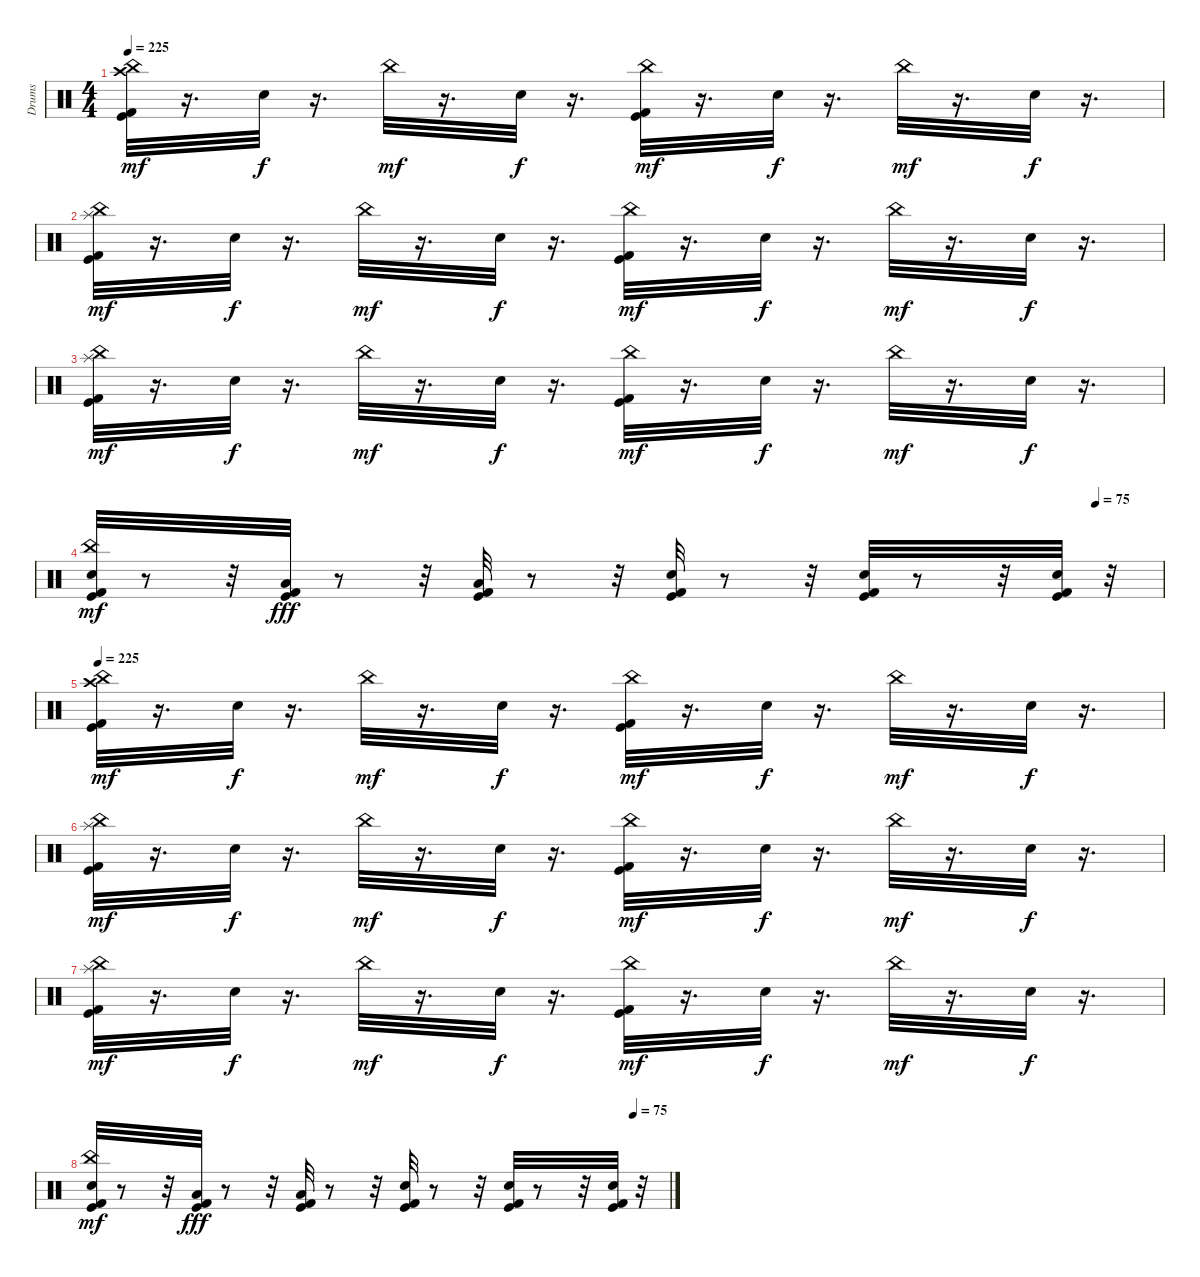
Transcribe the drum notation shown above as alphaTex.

\track ("Drums" "Drums") {instrument percussion}
\staff {score}
\articulation defaults
\ts (4 4)
\tempo 225
\clef neutral
\ks c
("Kick (hit) 2" "Kick (hit)" "China (hit)" "Crash high (hit)").32{dy mf} r.16{d} "Snare (hit) 2".32{dy f} r.16{d} "China (hit)".32{dy mf} r.16{d} "Snare (hit) 2".32{dy f} r.16{d} ("Kick (hit) 2" "Kick (hit)" "China (hit)").32{dy mf} r.16{d} "Snare (hit) 2".32{dy f} r.16{d} "China (hit)".32{dy mf} r.16{d} "Snare (hit) 2".32{dy f} r.16{d} |
("Kick (hit) 2" "Kick (hit)" "China (hit)" "Splash (hit)").32{dy mf} r.16{d} "Snare (hit) 2".32{dy f} r.16{d} "China (hit)".32{dy mf} r.16{d} "Snare (hit) 2".32{dy f} r.16{d} ("Kick (hit) 2" "Kick (hit)" "China (hit)").32{dy mf} r.16{d} "Snare (hit) 2".32{dy f} r.16{d} "China (hit)".32{dy mf} r.16{d} "Snare (hit) 2".32{dy f} r.16{d} |
("Kick (hit) 2" "Kick (hit)" "China (hit)" "Splash (hit)").32{dy mf} r.16{d} "Snare (hit) 2".32{dy f} r.16{d} "China (hit)".32{dy mf} r.16{d} "Snare (hit) 2".32{dy f} r.16{d} ("Kick (hit) 2" "Kick (hit)" "China (hit)").32{dy mf} r.16{d} "Snare (hit) 2".32{dy f} r.16{d} "China (hit)".32{dy mf} r.16{d} "Snare (hit) 2".32{dy f} r.16{d} |
\tempo (75 0.9375)
("Snare (hit) 2" "Kick (hit) 2" "Kick (hit)" "China (hit)").32{dy mf} r.8 r.32 ("Low Tom (hit)" "Kick (hit) 2" "Kick (hit)").32{dy fff} r.8 r.32 ("Low Floor Tom (hit)" "Kick (hit) 2" "Kick (hit)").32 r.8 r.32 ("Snare (hit) 2" "Kick (hit) 2" "Kick (hit)").32 r.8 r.32 ("Snare (hit) 2" "Kick (hit) 2" "Kick (hit)").32 r.8 r.32 ("Snare (hit) 2" "Kick (hit) 2" "Kick (hit)").32 r.32 |
\tempo 225
("Kick (hit) 2" "Kick (hit)" "China (hit)" "Crash high (hit)").32{dy mf} r.16{d} "Snare (hit) 2".32{dy f} r.16{d} "China (hit)".32{dy mf} r.16{d} "Snare (hit) 2".32{dy f} r.16{d} ("Kick (hit) 2" "Kick (hit)" "China (hit)").32{dy mf} r.16{d} "Snare (hit) 2".32{dy f} r.16{d} "China (hit)".32{dy mf} r.16{d} "Snare (hit) 2".32{dy f} r.16{d} |
("Kick (hit) 2" "Kick (hit)" "China (hit)" "Splash (hit)").32{dy mf} r.16{d} "Snare (hit) 2".32{dy f} r.16{d} "China (hit)".32{dy mf} r.16{d} "Snare (hit) 2".32{dy f} r.16{d} ("Kick (hit) 2" "Kick (hit)" "China (hit)").32{dy mf} r.16{d} "Snare (hit) 2".32{dy f} r.16{d} "China (hit)".32{dy mf} r.16{d} "Snare (hit) 2".32{dy f} r.16{d} |
("Kick (hit) 2" "Kick (hit)" "China (hit)" "Splash (hit)").32{dy mf} r.16{d} "Snare (hit) 2".32{dy f} r.16{d} "China (hit)".32{dy mf} r.16{d} "Snare (hit) 2".32{dy f} r.16{d} ("Kick (hit) 2" "Kick (hit)" "China (hit)").32{dy mf} r.16{d} "Snare (hit) 2".32{dy f} r.16{d} "China (hit)".32{dy mf} r.16{d} "Snare (hit) 2".32{dy f} r.16{d} |
\tempo (75 0.9375)
("Snare (hit) 2" "Kick (hit) 2" "Kick (hit)" "China (hit)").32{dy mf} r.8 r.32 ("Low Tom (hit)" "Kick (hit) 2" "Kick (hit)").32{dy fff} r.8 r.32 ("Low Floor Tom (hit)" "Kick (hit) 2" "Kick (hit)").32 r.8 r.32 ("Snare (hit) 2" "Kick (hit) 2" "Kick (hit)").32 r.8 r.32 ("Snare (hit) 2" "Kick (hit) 2" "Kick (hit)").32 r.8 r.32 ("Snare (hit) 2" "Kick (hit) 2" "Kick (hit)").32 r.32
